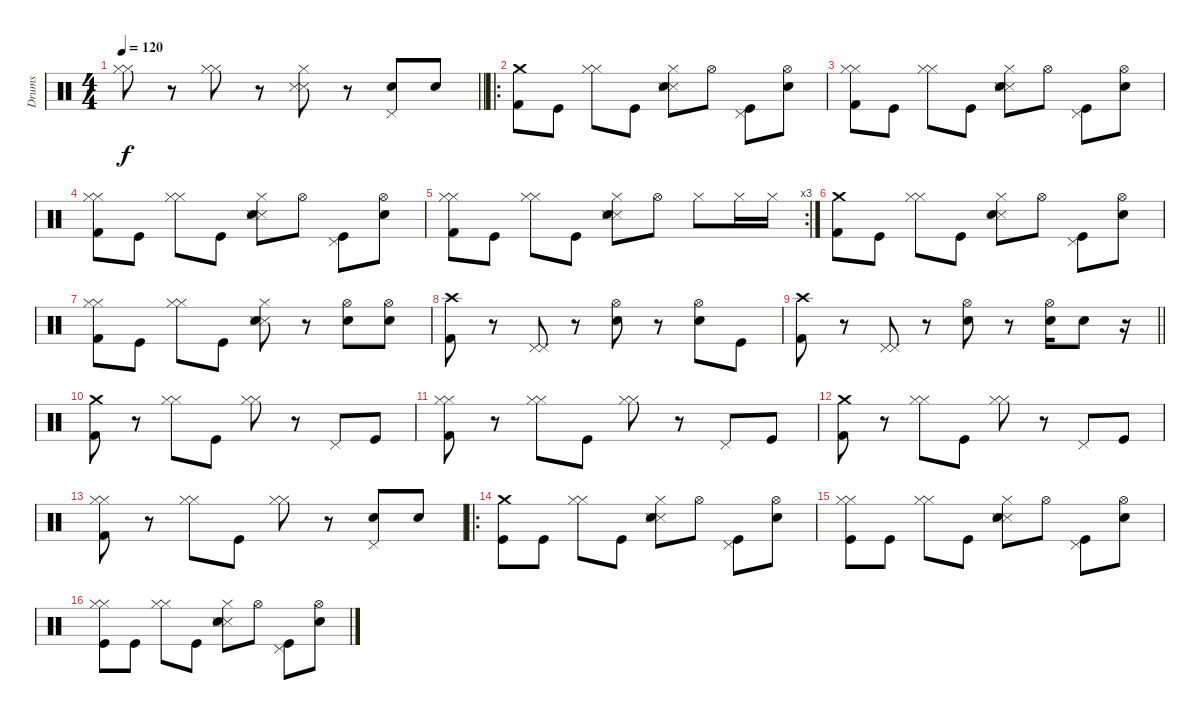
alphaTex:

\track ("Drums" "Drums") {instrument percussion}
\staff {score}
\articulation defaults
\ts (4 4)
\tempo 120
\clef neutral
\barLineRight lightlight
\ks c
("Hi-Hat (closed)" "Hi-Hat (closed)").8{dy f} r.8 ("Hi-Hat (closed)" "Hi-Hat (closed)").8 r.8 ("Snare (side stick) 3" "Hi-Hat (closed)" "Snare (side stick) 3").8 r.8 ("Pedal Hi-Hat (hit)" "Snare (hit) 2").8 "Snare (hit) 2".8 |
\ro
("Crash medium (hit)" "Kick (hit) 2").8 "Kick (hit)".8 ("Hi-Hat (closed)" "Hi-Hat (closed)").8 "Kick (hit)".8 ("Snare (side stick) 3" "Hi-Hat (closed)" "Snare (side stick) 3" "Snare (hit) 2").8 "Hi-Hat (open)".8 ("Pedal Hi-Hat (hit)" "Kick (hit)").8 ("Hi-Hat (open)" "Snare (hit) 2").8 |
("Hi-Hat (closed)" "Hi-Hat (closed)" "Kick (hit) 2").8 "Kick (hit)".8 ("Hi-Hat (closed)" "Hi-Hat (closed)").8 "Kick (hit)".8 ("Snare (side stick) 3" "Hi-Hat (closed)" "Snare (side stick) 3" "Snare (hit) 2").8 "Hi-Hat (open)".8 ("Pedal Hi-Hat (hit)" "Kick (hit)").8 ("Hi-Hat (open)" "Snare (hit) 2").8 |
("Hi-Hat (closed)" "Hi-Hat (closed)" "Kick (hit) 2").8 "Kick (hit)".8 ("Hi-Hat (closed)" "Hi-Hat (closed)").8 "Kick (hit)".8 ("Snare (side stick) 3" "Hi-Hat (closed)" "Snare (side stick) 3" "Snare (hit) 2").8 "Hi-Hat (open)".8 ("Pedal Hi-Hat (hit)" "Kick (hit)").8 ("Hi-Hat (open)" "Snare (hit) 2").8 |
\rc 3
("Hi-Hat (closed)" "Hi-Hat (closed)" "Kick (hit) 2").8 "Kick (hit)".8 ("Hi-Hat (closed)" "Hi-Hat (closed)").8 "Kick (hit)".8 ("Snare (side stick) 3" "Hi-Hat (closed)" "Snare (side stick) 3" "Snare (hit) 2").8 "Hi-Hat (open)".8 "Hi-Hat (closed)".8 "Hi-Hat (closed)".16 "Hi-Hat (closed)".16 |
("Crash medium (hit)" "Kick (hit) 2").8 "Kick (hit)".8 ("Hi-Hat (closed)" "Hi-Hat (closed)").8 "Kick (hit)".8 ("Snare (side stick) 3" "Hi-Hat (closed)" "Snare (hit) 2").8 "Hi-Hat (open)".8 ("Pedal Hi-Hat (hit)" "Kick (hit)").8 ("Hi-Hat (open)" "Snare (hit) 2").8 |
("Hi-Hat (closed)" "Hi-Hat (closed)" "Kick (hit) 2").8 "Kick (hit)".8 ("Hi-Hat (closed)" "Hi-Hat (closed)").8 "Kick (hit)".8 ("Snare (side stick) 3" "Hi-Hat (closed)" "Snare (side stick) 3" "Snare (hit) 2").8 r.8 ("Hi-Hat (open)" "Snare (hit) 2").8 ("Hi-Hat (open)" "Snare (hit) 2").8 |
("Crash high (hit)" "Kick (hit) 2").8 r.8 ("Pedal Hi-Hat (hit)" "Pedal Hi-Hat (hit)").8 r.8 ("Hi-Hat (open)" "Snare (hit) 2").8 r.8 ("Hi-Hat (open)" "Snare (hit) 2").8 "Kick (hit)".8 |
\barLineRight lightlight
("Crash high (hit)" "Kick (hit) 2").8 r.8 ("Pedal Hi-Hat (hit)" "Pedal Hi-Hat (hit)").8 r.8 ("Hi-Hat (open)" "Snare (hit) 2").8 r.8 ("Hi-Hat (open)" "Snare (hit) 2").16 "Snare (hit) 2".8 r.16 |
("Crash medium (hit)" "Kick (hit) 2").8 r.8 ("Hi-Hat (closed)" "Hi-Hat (closed)").8 "Kick (hit)".8 ("Hi-Hat (closed)" "Hi-Hat (closed)").8 r.8 "Pedal Hi-Hat (hit)".8 "Kick (hit)".8 |
("Hi-Hat (closed)" "Hi-Hat (closed)" "Kick (hit) 2").8 r.8 ("Hi-Hat (closed)" "Hi-Hat (closed)").8 "Kick (hit)".8 ("Hi-Hat (closed)" "Hi-Hat (closed)").8 r.8 "Pedal Hi-Hat (hit)".8 "Kick (hit)".8 |
("Crash medium (hit)" "Kick (hit) 2").8 r.8 ("Hi-Hat (closed)" "Hi-Hat (closed)").8 "Kick (hit)".8 ("Hi-Hat (closed)" "Hi-Hat (closed)").8 r.8 "Pedal Hi-Hat (hit)".8 "Kick (hit)".8 |
("Hi-Hat (closed)" "Hi-Hat (closed)" "Kick (hit) 2").8 r.8 ("Hi-Hat (closed)" "Hi-Hat (closed)").8 "Kick (hit)".8 ("Hi-Hat (closed)" "Hi-Hat (closed)").8 r.8 ("Pedal Hi-Hat (hit)" "Snare (hit) 2").8 "Snare (hit) 2".8 |
\ro
("Crash medium (hit)" "Kick (hit)").8 "Kick (hit)".8 ("Hi-Hat (closed)" "Hi-Hat (closed)").8 "Kick (hit)".8 ("Snare (side stick) 3" "Hi-Hat (closed)" "Snare (side stick) 3" "Snare (hit) 2").8 "Hi-Hat (open)".8 ("Pedal Hi-Hat (hit)" "Kick (hit)").8 ("Hi-Hat (open)" "Snare (hit) 2").8 |
("Hi-Hat (closed)" "Hi-Hat (closed)" "Kick (hit)").8 "Kick (hit)".8 ("Hi-Hat (closed)" "Hi-Hat (closed)").8 "Kick (hit)".8 ("Snare (side stick) 3" "Hi-Hat (closed)" "Snare (side stick) 3" "Snare (hit) 2").8 "Hi-Hat (open)".8 ("Pedal Hi-Hat (hit)" "Kick (hit)").8 ("Hi-Hat (open)" "Snare (hit) 2").8 |
("Hi-Hat (closed)" "Hi-Hat (closed)" "Kick (hit)").8 "Kick (hit)".8 ("Hi-Hat (closed)" "Hi-Hat (closed)").8 "Kick (hit)".8 ("Snare (side stick) 3" "Hi-Hat (closed)" "Snare (side stick) 3" "Snare (hit) 2").8 "Hi-Hat (open)".8 ("Pedal Hi-Hat (hit)" "Kick (hit)").8 ("Hi-Hat (open)" "Snare (hit) 2").8
